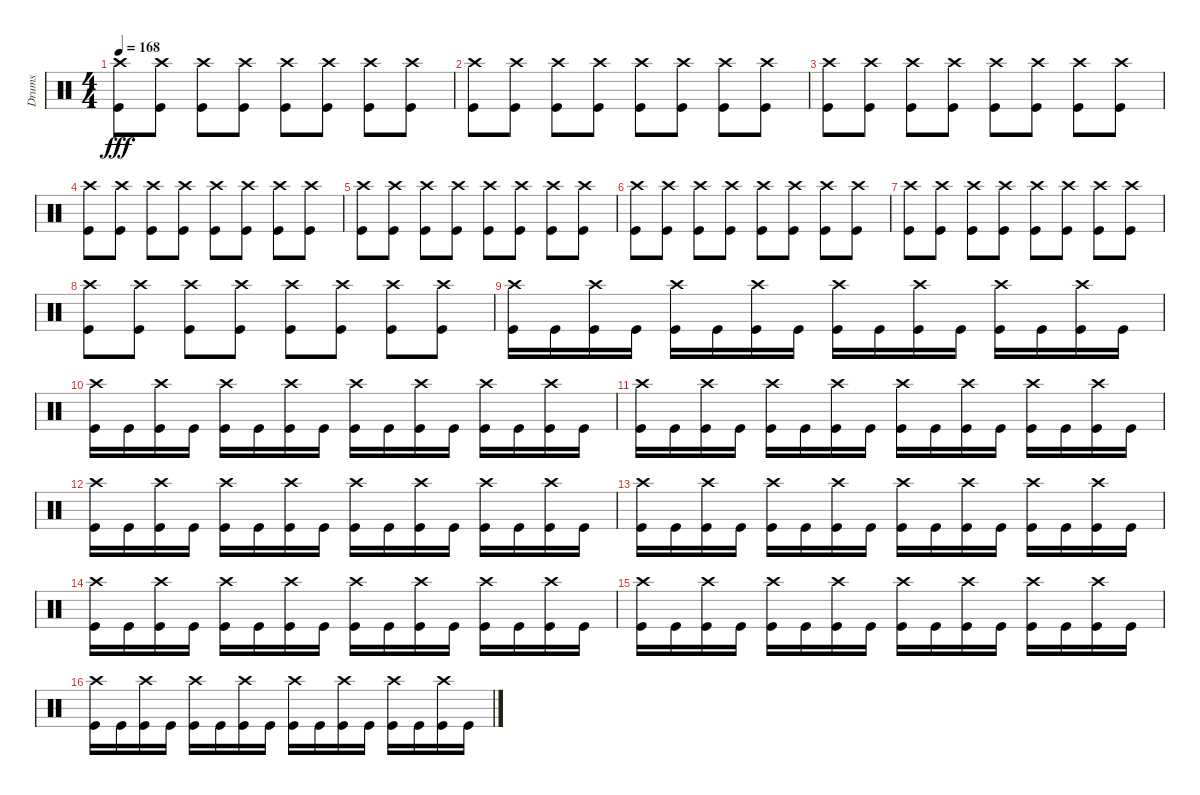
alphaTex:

\track ("Drums" "Drums") {instrument percussion}
\staff {score}
\articulation defaults
\ts (4 4)
\tempo 168
\clef neutral
\ks c
("Crash high (hit)" "Kick (hit)").8{dy fff} ("Crash high (hit)" "Kick (hit)").8 ("Crash high (hit)" "Kick (hit)").8 ("Crash high (hit)" "Kick (hit)").8 ("Crash high (hit)" "Kick (hit)").8 ("Crash high (hit)" "Kick (hit)").8 ("Crash high (hit)" "Kick (hit)").8 ("Crash high (hit)" "Kick (hit)").8 |
("Crash high (hit)" "Kick (hit)").8 ("Crash high (hit)" "Kick (hit)").8 ("Crash high (hit)" "Kick (hit)").8 ("Crash high (hit)" "Kick (hit)").8 ("Crash high (hit)" "Kick (hit)").8 ("Crash high (hit)" "Kick (hit)").8 ("Crash high (hit)" "Kick (hit)").8 ("Crash high (hit)" "Kick (hit)").8 |
("Crash high (hit)" "Kick (hit)").8 ("Crash high (hit)" "Kick (hit)").8 ("Crash high (hit)" "Kick (hit)").8 ("Crash high (hit)" "Kick (hit)").8 ("Crash high (hit)" "Kick (hit)").8 ("Crash high (hit)" "Kick (hit)").8 ("Crash high (hit)" "Kick (hit)").8 ("Crash high (hit)" "Kick (hit)").8 |
("Crash high (hit)" "Kick (hit)").8 ("Crash high (hit)" "Kick (hit)").8 ("Crash high (hit)" "Kick (hit)").8 ("Crash high (hit)" "Kick (hit)").8 ("Crash high (hit)" "Kick (hit)").8 ("Crash high (hit)" "Kick (hit)").8 ("Crash high (hit)" "Kick (hit)").8 ("Crash high (hit)" "Kick (hit)").8 |
("Crash high (hit)" "Kick (hit)").8 ("Crash high (hit)" "Kick (hit)").8 ("Crash high (hit)" "Kick (hit)").8 ("Crash high (hit)" "Kick (hit)").8 ("Crash high (hit)" "Kick (hit)").8 ("Crash high (hit)" "Kick (hit)").8 ("Crash high (hit)" "Kick (hit)").8 ("Crash high (hit)" "Kick (hit)").8 |
("Crash high (hit)" "Kick (hit)").8 ("Crash high (hit)" "Kick (hit)").8 ("Crash high (hit)" "Kick (hit)").8 ("Crash high (hit)" "Kick (hit)").8 ("Crash high (hit)" "Kick (hit)").8 ("Crash high (hit)" "Kick (hit)").8 ("Crash high (hit)" "Kick (hit)").8 ("Crash high (hit)" "Kick (hit)").8 |
("Crash high (hit)" "Kick (hit)").8 ("Crash high (hit)" "Kick (hit)").8 ("Crash high (hit)" "Kick (hit)").8 ("Crash high (hit)" "Kick (hit)").8 ("Crash high (hit)" "Kick (hit)").8 ("Crash high (hit)" "Kick (hit)").8 ("Crash high (hit)" "Kick (hit)").8 ("Crash high (hit)" "Kick (hit)").8 |
("Crash high (hit)" "Kick (hit)").8 ("Crash high (hit)" "Kick (hit)").8 ("Crash high (hit)" "Kick (hit)").8 ("Crash high (hit)" "Kick (hit)").8 ("Crash high (hit)" "Kick (hit)").8 ("Crash high (hit)" "Kick (hit)").8 ("Crash high (hit)" "Kick (hit)").8 ("Crash high (hit)" "Kick (hit)").8 |
("Crash high (hit)" "Kick (hit)").16 "Kick (hit)".16 ("Crash high (hit)" "Kick (hit)").16 "Kick (hit)".16 ("Crash high (hit)" "Kick (hit)").16 "Kick (hit)".16 ("Crash high (hit)" "Kick (hit)").16 "Kick (hit)".16 ("Crash high (hit)" "Kick (hit)").16 "Kick (hit)".16 ("Crash high (hit)" "Kick (hit)").16 "Kick (hit)".16 ("Crash high (hit)" "Kick (hit)").16 "Kick (hit)".16 ("Crash high (hit)" "Kick (hit)").16 "Kick (hit)".16 |
("Crash high (hit)" "Kick (hit)").16 "Kick (hit)".16 ("Crash high (hit)" "Kick (hit)").16 "Kick (hit)".16 ("Crash high (hit)" "Kick (hit)").16 "Kick (hit)".16 ("Crash high (hit)" "Kick (hit)").16 "Kick (hit)".16 ("Crash high (hit)" "Kick (hit)").16 "Kick (hit)".16 ("Crash high (hit)" "Kick (hit)").16 "Kick (hit)".16 ("Crash high (hit)" "Kick (hit)").16 "Kick (hit)".16 ("Crash high (hit)" "Kick (hit)").16 "Kick (hit)".16 |
("Crash high (hit)" "Kick (hit)").16 "Kick (hit)".16 ("Crash high (hit)" "Kick (hit)").16 "Kick (hit)".16 ("Crash high (hit)" "Kick (hit)").16 "Kick (hit)".16 ("Crash high (hit)" "Kick (hit)").16 "Kick (hit)".16 ("Crash high (hit)" "Kick (hit)").16 "Kick (hit)".16 ("Crash high (hit)" "Kick (hit)").16 "Kick (hit)".16 ("Crash high (hit)" "Kick (hit)").16 "Kick (hit)".16 ("Crash high (hit)" "Kick (hit)").16 "Kick (hit)".16 |
("Crash high (hit)" "Kick (hit)").16 "Kick (hit)".16 ("Crash high (hit)" "Kick (hit)").16 "Kick (hit)".16 ("Crash high (hit)" "Kick (hit)").16 "Kick (hit)".16 ("Crash high (hit)" "Kick (hit)").16 "Kick (hit)".16 ("Crash high (hit)" "Kick (hit)").16 "Kick (hit)".16 ("Crash high (hit)" "Kick (hit)").16 "Kick (hit)".16 ("Crash high (hit)" "Kick (hit)").16 "Kick (hit)".16 ("Crash high (hit)" "Kick (hit)").16 "Kick (hit)".16 |
("Crash high (hit)" "Kick (hit)").16 "Kick (hit)".16 ("Crash high (hit)" "Kick (hit)").16 "Kick (hit)".16 ("Crash high (hit)" "Kick (hit)").16 "Kick (hit)".16 ("Crash high (hit)" "Kick (hit)").16 "Kick (hit)".16 ("Crash high (hit)" "Kick (hit)").16 "Kick (hit)".16 ("Crash high (hit)" "Kick (hit)").16 "Kick (hit)".16 ("Crash high (hit)" "Kick (hit)").16 "Kick (hit)".16 ("Crash high (hit)" "Kick (hit)").16 "Kick (hit)".16 |
("Crash high (hit)" "Kick (hit)").16 "Kick (hit)".16 ("Crash high (hit)" "Kick (hit)").16 "Kick (hit)".16 ("Crash high (hit)" "Kick (hit)").16 "Kick (hit)".16 ("Crash high (hit)" "Kick (hit)").16 "Kick (hit)".16 ("Crash high (hit)" "Kick (hit)").16 "Kick (hit)".16 ("Crash high (hit)" "Kick (hit)").16 "Kick (hit)".16 ("Crash high (hit)" "Kick (hit)").16 "Kick (hit)".16 ("Crash high (hit)" "Kick (hit)").16 "Kick (hit)".16 |
("Crash high (hit)" "Kick (hit)").16 "Kick (hit)".16 ("Crash high (hit)" "Kick (hit)").16 "Kick (hit)".16 ("Crash high (hit)" "Kick (hit)").16 "Kick (hit)".16 ("Crash high (hit)" "Kick (hit)").16 "Kick (hit)".16 ("Crash high (hit)" "Kick (hit)").16 "Kick (hit)".16 ("Crash high (hit)" "Kick (hit)").16 "Kick (hit)".16 ("Crash high (hit)" "Kick (hit)").16 "Kick (hit)".16 ("Crash high (hit)" "Kick (hit)").16 "Kick (hit)".16 |
("Crash high (hit)" "Kick (hit)").16 "Kick (hit)".16 ("Crash high (hit)" "Kick (hit)").16 "Kick (hit)".16 ("Crash high (hit)" "Kick (hit)").16 "Kick (hit)".16 ("Crash high (hit)" "Kick (hit)").16 "Kick (hit)".16 ("Crash high (hit)" "Kick (hit)").16 "Kick (hit)".16 ("Crash high (hit)" "Kick (hit)").16 "Kick (hit)".16 ("Crash high (hit)" "Kick (hit)").16 "Kick (hit)".16 ("Crash high (hit)" "Kick (hit)").16 "Kick (hit)".16
